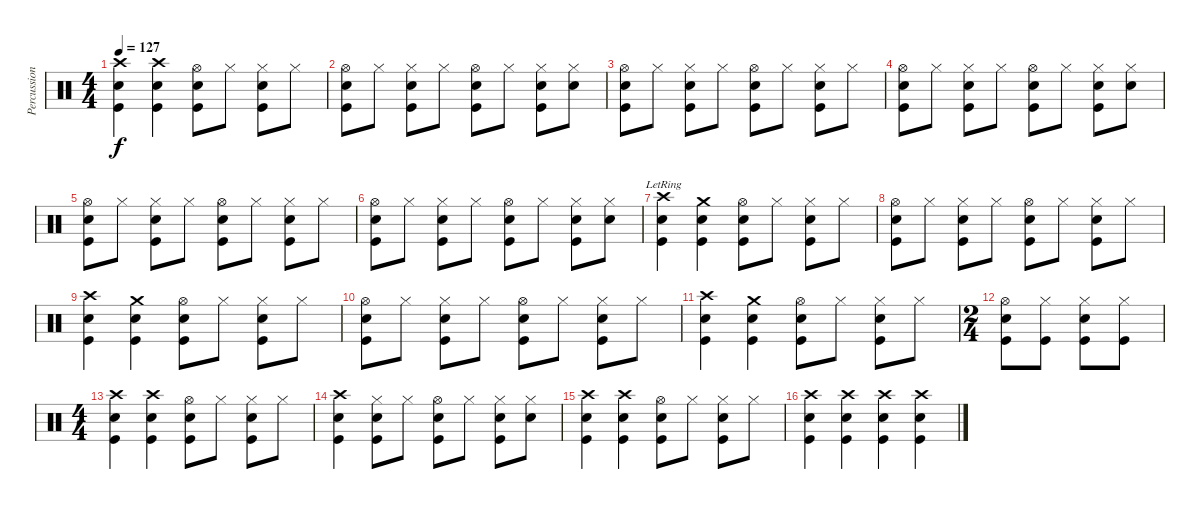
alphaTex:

\track ("Percussion" "Percussion") {instrument percussion}
\staff {score}
\articulation defaults
\ts (4 4)
\tempo 127
\clef neutral
\ks c
("Crash high (hit)" "Snare (hit) 2" "Kick (hit)").4{dy f} ("Crash high (hit)" "Snare (hit) 2" "Kick (hit)").4 ("Hi-Hat (open)" "Snare (hit) 2" "Kick (hit)").8 "Hi-Hat (closed)".8 ("Hi-Hat (closed)" "Snare (hit) 2" "Kick (hit)").8 "Hi-Hat (closed)".8 |
("Hi-Hat (open)" "Snare (hit) 2" "Kick (hit)").8 "Hi-Hat (closed)".8 ("Hi-Hat (closed)" "Snare (hit) 2" "Kick (hit)").8 "Hi-Hat (closed)".8 ("Hi-Hat (open)" "Snare (hit) 2" "Kick (hit)").8 "Hi-Hat (closed)".8 ("Hi-Hat (closed)" "Snare (hit) 2" "Kick (hit)").8 ("Hi-Hat (closed)" "Snare (hit) 2").8 |
("Hi-Hat (open)" "Snare (hit) 2" "Kick (hit)").8 "Hi-Hat (closed)".8 ("Hi-Hat (closed)" "Snare (hit) 2" "Kick (hit)").8 "Hi-Hat (closed)".8 ("Hi-Hat (open)" "Snare (hit) 2" "Kick (hit)").8 "Hi-Hat (closed)".8 ("Hi-Hat (closed)" "Snare (hit) 2" "Kick (hit)").8 "Hi-Hat (closed)".8 |
("Hi-Hat (open)" "Snare (hit) 2" "Kick (hit)").8 "Hi-Hat (closed)".8 ("Hi-Hat (closed)" "Snare (hit) 2" "Kick (hit)").8 "Hi-Hat (closed)".8 ("Hi-Hat (open)" "Snare (hit) 2" "Kick (hit)").8 "Hi-Hat (closed)".8 ("Hi-Hat (closed)" "Snare (hit) 2" "Kick (hit)").8 ("Hi-Hat (closed)" "Snare (hit) 2").8 |
("Hi-Hat (open)" "Snare (hit) 2" "Kick (hit)").8 "Hi-Hat (closed)".8 ("Hi-Hat (closed)" "Snare (hit) 2" "Kick (hit)").8 "Hi-Hat (closed)".8 ("Hi-Hat (open)" "Snare (hit) 2" "Kick (hit)").8 "Hi-Hat (closed)".8 ("Hi-Hat (closed)" "Snare (hit) 2" "Kick (hit)").8 "Hi-Hat (closed)".8 |
("Hi-Hat (open)" "Snare (hit) 2" "Kick (hit)").8 "Hi-Hat (closed)".8 ("Hi-Hat (closed)" "Snare (hit) 2" "Kick (hit)").8 "Hi-Hat (closed)".8 ("Hi-Hat (open)" "Snare (hit) 2" "Kick (hit)").8 "Hi-Hat (closed)".8 ("Hi-Hat (closed)" "Snare (hit) 2" "Kick (hit)").8 ("Hi-Hat (closed)" "Snare (hit) 2").8 |
("Crash high (hit)"{lr} "Snare (hit) 2" "Kick (hit)").4 ("Crash medium (hit)" "Snare (hit) 2" "Kick (hit)").4 ("Hi-Hat (open)" "Snare (hit) 2" "Kick (hit)").8 "Hi-Hat (closed)".8 ("Hi-Hat (closed)" "Snare (hit) 2" "Kick (hit)").8 "Hi-Hat (closed)".8 |
("Hi-Hat (open)" "Snare (hit) 2" "Kick (hit)").8 "Hi-Hat (closed)".8 ("Hi-Hat (closed)" "Snare (hit) 2" "Kick (hit)").8 "Hi-Hat (closed)".8 ("Hi-Hat (open)" "Snare (hit) 2" "Kick (hit)").8 "Hi-Hat (closed)".8 ("Hi-Hat (closed)" "Snare (hit) 2" "Kick (hit)").8 "Hi-Hat (closed)".8 |
("Crash high (hit)" "Snare (hit) 2" "Kick (hit)").4 ("Crash medium (hit)" "Snare (hit) 2" "Kick (hit)").4 ("Hi-Hat (open)" "Snare (hit) 2" "Kick (hit)").8 "Hi-Hat (closed)".8 ("Hi-Hat (closed)" "Snare (hit) 2" "Kick (hit)").8 "Hi-Hat (closed)".8 |
("Hi-Hat (open)" "Snare (hit) 2" "Kick (hit)").8 "Hi-Hat (closed)".8 ("Hi-Hat (closed)" "Snare (hit) 2" "Kick (hit)").8 "Hi-Hat (closed)".8 ("Hi-Hat (open)" "Snare (hit) 2" "Kick (hit)").8 "Hi-Hat (closed)".8 ("Hi-Hat (closed)" "Snare (hit) 2" "Kick (hit)").8 "Hi-Hat (closed)".8 |
("Crash high (hit)" "Snare (hit) 2" "Kick (hit)").4 ("Crash medium (hit)" "Snare (hit) 2" "Kick (hit)").4 ("Hi-Hat (open)" "Snare (hit) 2" "Kick (hit)").8 "Hi-Hat (closed)".8 ("Hi-Hat (closed)" "Snare (hit) 2" "Kick (hit)").8 "Hi-Hat (closed)".8 |
\ts (2 4)
("Hi-Hat (open)" "Snare (hit) 2" "Kick (hit)").8 ("Hi-Hat (closed)" "Kick (hit)").8 ("Hi-Hat (closed)" "Snare (hit) 2" "Kick (hit)").8 ("Hi-Hat (closed)" "Kick (hit)").8 |
\ts (4 4)
("Crash high (hit)" "Snare (hit) 2" "Kick (hit)").4 ("Crash high (hit)" "Snare (hit) 2" "Kick (hit)").4 ("Hi-Hat (open)" "Snare (hit) 2" "Kick (hit)").8 "Hi-Hat (closed)".8 ("Hi-Hat (closed)" "Snare (hit) 2" "Kick (hit)").8 "Hi-Hat (closed)".8 |
("Crash high (hit)" "Snare (hit) 2" "Kick (hit)").4 ("Hi-Hat (closed)" "Snare (hit) 2" "Kick (hit)").8 "Hi-Hat (closed)".8 ("Hi-Hat (open)" "Snare (hit) 2" "Kick (hit)").8 "Hi-Hat (closed)".8 ("Hi-Hat (closed)" "Snare (hit) 2" "Kick (hit)").8 ("Hi-Hat (closed)" "Snare (hit) 2").8 |
("Crash high (hit)" "Snare (hit) 2" "Kick (hit)").4 ("Crash high (hit)" "Snare (hit) 2" "Kick (hit)").4 ("Hi-Hat (open)" "Snare (hit) 2" "Kick (hit)").8 "Hi-Hat (closed)".8 ("Hi-Hat (closed)" "Snare (hit) 2" "Kick (hit)").8 "Hi-Hat (closed)".8 |
("Crash high (hit)" "Snare (hit) 2" "Kick (hit)").4 ("Crash high (hit)" "Snare (hit) 2" "Kick (hit)").4 ("Crash high (hit)" "Snare (hit) 2" "Kick (hit)").4 ("Crash high (hit)" "Snare (hit) 2" "Kick (hit)").4
